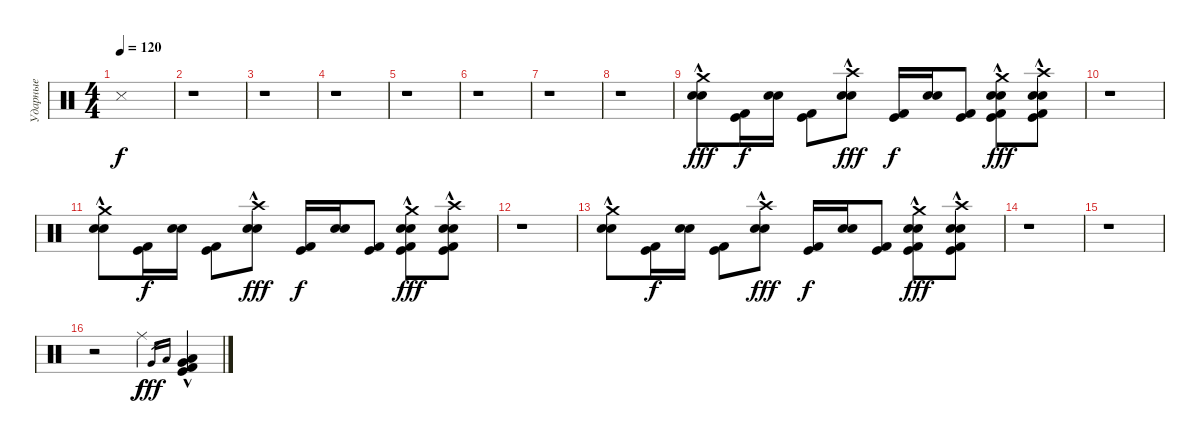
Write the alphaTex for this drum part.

\track ("Ударные" "Ударные") {instrument percussion}
\staff {score}
\articulation defaults
\ts (4 4)
\tempo 120
\clef neutral
\ks c "Snare (side stick) 3".1{dy f}
|
r.1 |
r.1 |
r.1 |
r.1 |
r.1 |
r.1 |
r.1 |
("Crash medium (hit)" "Snare (hit) 2"{hac} "Electric Snare (hit)"{hac}).8{dy fff} ("Kick (hit)" "Kick (hit) 2").16{dy f} ("Snare (hit) 2" "Electric Snare (hit)").16 ("Kick (hit)" "Kick (hit) 2").8 ("Crash high (hit)" "Snare (hit) 2"{hac} "Electric Snare (hit)"{hac}).8{dy fff} ("Kick (hit)" "Kick (hit) 2").16{dy f} ("Snare (hit) 2" "Electric Snare (hit)").16 ("Kick (hit)" "Kick (hit) 2").8 ("Crash medium (hit)" "Kick (hit)" "Kick (hit) 2" "Snare (hit) 2"{hac} "Electric Snare (hit)"{hac}).8{dy fff} ("Crash high (hit)" "Kick (hit)" "Kick (hit) 2" "Snare (hit) 2"{hac} "Electric Snare (hit)"{hac}).8 |
r.1 |
("Crash medium (hit)" "Snare (hit) 2"{hac} "Electric Snare (hit)"{hac}).8 ("Kick (hit)" "Kick (hit) 2").16{dy f} ("Snare (hit) 2" "Electric Snare (hit)").16 ("Kick (hit)" "Kick (hit) 2").8 ("Crash high (hit)" "Snare (hit) 2"{hac} "Electric Snare (hit)"{hac}).8{dy fff} ("Kick (hit)" "Kick (hit) 2").16{dy f} ("Snare (hit) 2" "Electric Snare (hit)").16 ("Kick (hit)" "Kick (hit) 2").8 ("Crash medium (hit)" "Kick (hit)" "Kick (hit) 2" "Snare (hit) 2"{hac} "Electric Snare (hit)"{hac}).8{dy fff} ("Crash high (hit)" "Kick (hit)" "Kick (hit) 2" "Snare (hit) 2"{hac} "Electric Snare (hit)"{hac}).8 |
r.1 |
("Crash medium (hit)" "Snare (hit) 2"{hac} "Electric Snare (hit)"{hac}).8 ("Kick (hit)" "Kick (hit) 2").16{dy f} ("Snare (hit) 2" "Electric Snare (hit)").16 ("Kick (hit)" "Kick (hit) 2").8 ("Crash high (hit)" "Snare (hit) 2"{hac} "Electric Snare (hit)"{hac}).8{dy fff} ("Kick (hit)" "Kick (hit) 2").16{dy f} ("Snare (hit) 2" "Electric Snare (hit)").16 ("Kick (hit)" "Kick (hit) 2").8 ("Crash medium (hit)" "Kick (hit)" "Kick (hit) 2" "Snare (hit) 2"{hac} "Electric Snare (hit)"{hac}).8{dy fff} ("Crash high (hit)" "Kick (hit)" "Kick (hit) 2" "Snare (hit) 2"{hac} "Electric Snare (hit)"{hac}).8 |
r.1 |
r.1 |
r.2 "Ride (middle)".4{dy f} "Very Low Tom (hit)".16{gr dy fff} "Low Floor Tom (hit)".16{gr} ("Kick (hit)" "Kick (hit) 2" "Very Low Tom (hit)"{hac} "Low Floor Tom (hit)"{hac}).4
